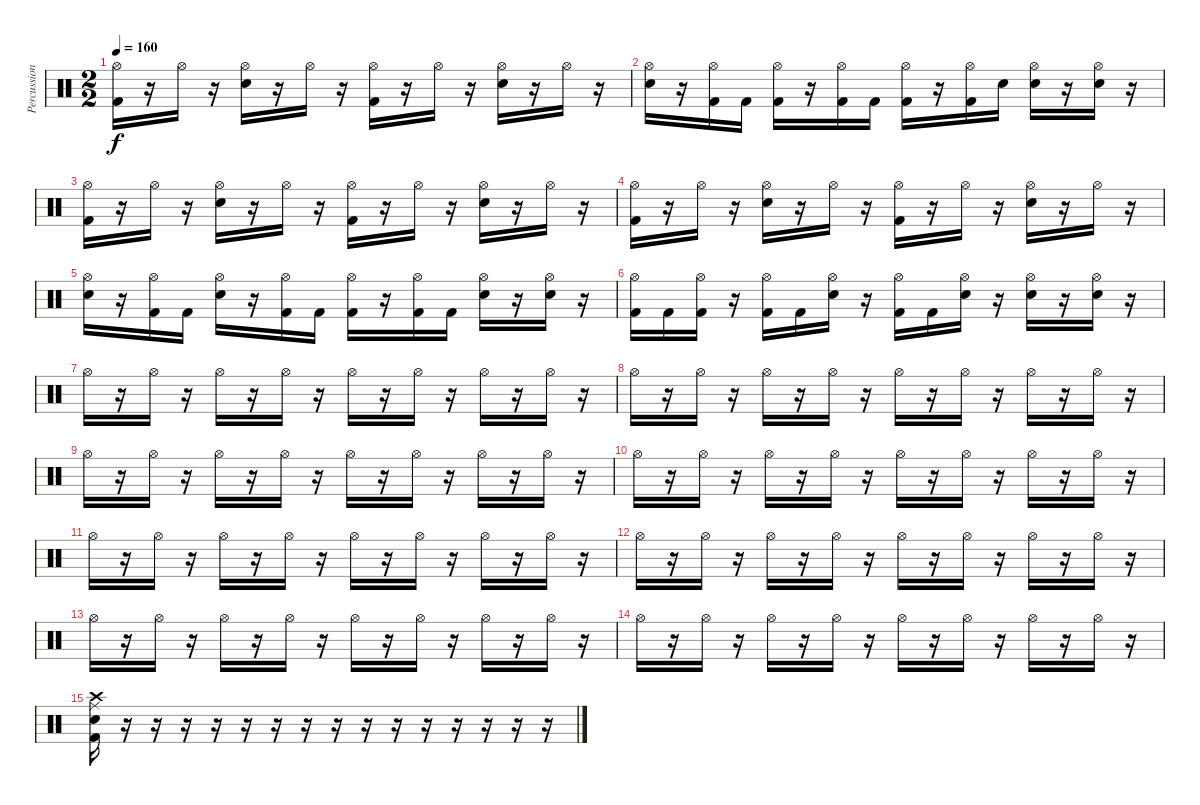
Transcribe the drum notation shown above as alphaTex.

\track ("Percussion" "Percussion") {instrument percussion}
\staff {score}
\articulation defaults
\ts (2 2)
\tempo 160
\clef neutral
\ks c
("Hi-Hat (open)" "Kick (hit) 2").16{dy f} r.16 "Hi-Hat (open)".16 r.16 ("Hi-Hat (open)" "Snare (hit) 2").16 r.16 "Hi-Hat (open)".16 r.16 ("Hi-Hat (open)" "Kick (hit) 2").16 r.16 "Hi-Hat (open)".16 r.16 ("Hi-Hat (open)" "Snare (hit) 2").16 r.16 "Hi-Hat (open)".16 r.16 |
("Hi-Hat (open)" "Snare (hit) 2").16 r.16 ("Hi-Hat (open)" "Kick (hit) 2").16 "Kick (hit) 2".16 ("Hi-Hat (open)" "Kick (hit) 2").16 r.16 ("Hi-Hat (open)" "Kick (hit) 2").16 "Kick (hit) 2".16 ("Hi-Hat (open)" "Kick (hit) 2").16 r.16 ("Hi-Hat (open)" "Kick (hit) 2").16 "Snare (hit) 2".16 ("Hi-Hat (open)" "Snare (hit) 2").16 r.16 ("Hi-Hat (open)" "Snare (hit) 2").16 r.16 |
("Hi-Hat (open)" "Kick (hit) 2").16 r.16 "Hi-Hat (open)".16 r.16 ("Hi-Hat (open)" "Snare (hit) 2").16 r.16 "Hi-Hat (open)".16 r.16 ("Hi-Hat (open)" "Kick (hit) 2").16 r.16 "Hi-Hat (open)".16 r.16 ("Hi-Hat (open)" "Snare (hit) 2").16 r.16 "Hi-Hat (open)".16 r.16 |
("Hi-Hat (open)" "Kick (hit) 2").16 r.16 "Hi-Hat (open)".16 r.16 ("Hi-Hat (open)" "Snare (hit) 2").16 r.16 "Hi-Hat (open)".16 r.16 ("Hi-Hat (open)" "Kick (hit) 2").16 r.16 "Hi-Hat (open)".16 r.16 ("Hi-Hat (open)" "Snare (hit) 2").16 r.16 "Hi-Hat (open)".16 r.16 |
("Hi-Hat (open)" "Snare (hit) 2").16 r.16 ("Hi-Hat (open)" "Kick (hit) 2").16 "Kick (hit) 2".16 ("Hi-Hat (open)" "Snare (hit) 2").16 r.16 ("Hi-Hat (open)" "Kick (hit) 2").16 "Kick (hit) 2".16 ("Hi-Hat (open)" "Kick (hit) 2").16 r.16 ("Hi-Hat (open)" "Kick (hit) 2").16 "Kick (hit) 2".16 ("Hi-Hat (open)" "Snare (hit) 2").16 r.16 ("Hi-Hat (open)" "Snare (hit) 2").16 r.16 |
("Hi-Hat (open)" "Kick (hit) 2").16 "Kick (hit) 2".16 ("Hi-Hat (open)" "Kick (hit) 2").16 r.16 ("Hi-Hat (open)" "Kick (hit) 2").16 "Kick (hit) 2".16 ("Hi-Hat (open)" "Snare (hit) 2").16 r.16 ("Hi-Hat (open)" "Kick (hit) 2").16 "Kick (hit) 2".16 ("Hi-Hat (open)" "Snare (hit) 2").16 r.16 ("Hi-Hat (open)" "Snare (hit) 2").16 r.16 ("Hi-Hat (open)" "Snare (hit) 2").16 r.16 |
"Hi-Hat (open)".16 r.16 "Hi-Hat (open)".16 r.16 "Hi-Hat (open)".16 r.16 "Hi-Hat (open)".16 r.16 "Hi-Hat (open)".16 r.16 "Hi-Hat (open)".16 r.16 "Hi-Hat (open)".16 r.16 "Hi-Hat (open)".16 r.16 |
"Hi-Hat (open)".16 r.16 "Hi-Hat (open)".16 r.16 "Hi-Hat (open)".16 r.16 "Hi-Hat (open)".16 r.16 "Hi-Hat (open)".16 r.16 "Hi-Hat (open)".16 r.16 "Hi-Hat (open)".16 r.16 "Hi-Hat (open)".16 r.16 |
"Hi-Hat (open)".16 r.16 "Hi-Hat (open)".16 r.16 "Hi-Hat (open)".16 r.16 "Hi-Hat (open)".16 r.16 "Hi-Hat (open)".16 r.16 "Hi-Hat (open)".16 r.16 "Hi-Hat (open)".16 r.16 "Hi-Hat (open)".16 r.16 |
"Hi-Hat (open)".16 r.16 "Hi-Hat (open)".16 r.16 "Hi-Hat (open)".16 r.16 "Hi-Hat (open)".16 r.16 "Hi-Hat (open)".16 r.16 "Hi-Hat (open)".16 r.16 "Hi-Hat (open)".16 r.16 "Hi-Hat (open)".16 r.16 |
"Hi-Hat (open)".16 r.16 "Hi-Hat (open)".16 r.16 "Hi-Hat (open)".16 r.16 "Hi-Hat (open)".16 r.16 "Hi-Hat (open)".16 r.16 "Hi-Hat (open)".16 r.16 "Hi-Hat (open)".16 r.16 "Hi-Hat (open)".16 r.16 |
"Hi-Hat (open)".16 r.16 "Hi-Hat (open)".16 r.16 "Hi-Hat (open)".16 r.16 "Hi-Hat (open)".16 r.16 "Hi-Hat (open)".16 r.16 "Hi-Hat (open)".16 r.16 "Hi-Hat (open)".16 r.16 "Hi-Hat (open)".16 r.16 |
"Hi-Hat (open)".16 r.16 "Hi-Hat (open)".16 r.16 "Hi-Hat (open)".16 r.16 "Hi-Hat (open)".16 r.16 "Hi-Hat (open)".16 r.16 "Hi-Hat (open)".16 r.16 "Hi-Hat (open)".16 r.16 "Hi-Hat (open)".16 r.16 |
"Hi-Hat (open)".16 r.16 "Hi-Hat (open)".16 r.16 "Hi-Hat (open)".16 r.16 "Hi-Hat (open)".16 r.16 "Hi-Hat (open)".16 r.16 "Hi-Hat (open)".16 r.16 "Hi-Hat (open)".16 r.16 "Hi-Hat (open)".16 r.16 |
("Ride (middle)" "Crash high (hit)" "Kick (hit) 2" "Snare (hit) 2").16 r.16 r.16 r.16 r.16 r.16 r.16 r.16 r.16 r.16 r.16 r.16 r.16 r.16 r.16 r.16
